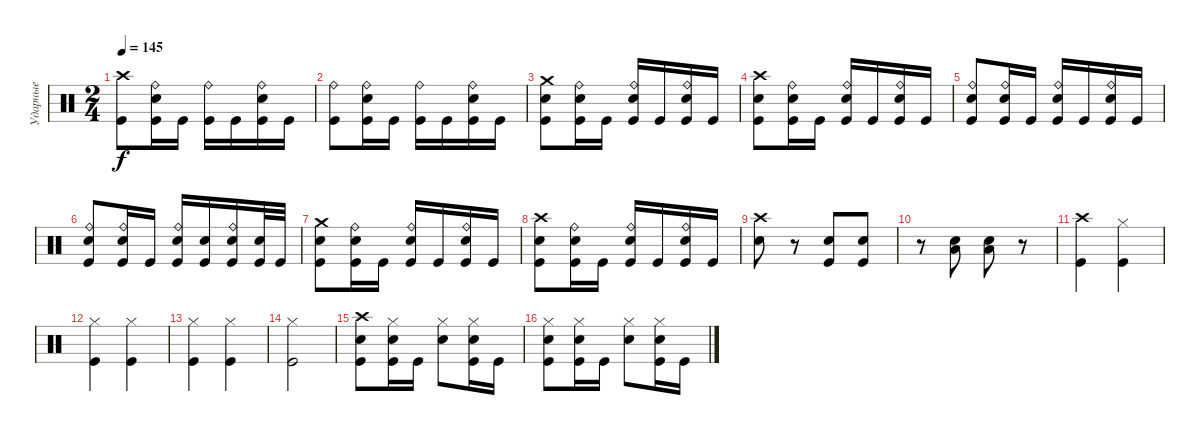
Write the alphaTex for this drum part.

\track ("Ударные" "Ударные") {instrument percussion}
\staff {score}
\articulation defaults
\ts (2 4)
\tempo 145
\clef neutral
\ks c
("Crash high (hit)" "Kick (hit)").8{dy f} ("Ride (bell)" "Electric Snare (hit)" "Kick (hit)").16 "Kick (hit)".16 ("Ride (bell)" "Kick (hit)").16 "Kick (hit)".16 ("Ride (bell)" "Electric Snare (hit)" "Kick (hit)").16 "Kick (hit)".16 |
("Ride (bell)" "Kick (hit)").8 ("Ride (bell)" "Electric Snare (hit)" "Kick (hit)").16 "Kick (hit)".16 ("Ride (bell)" "Kick (hit)").16 "Kick (hit)".16 ("Ride (bell)" "Electric Snare (hit)" "Kick (hit)").16 "Kick (hit)".16 |
("Crash medium (hit)" "Electric Snare (hit)" "Kick (hit)").8 ("Ride (bell)" "Electric Snare (hit)" "Kick (hit)").16 "Kick (hit)".16 ("Ride (bell)" "Electric Snare (hit)" "Kick (hit)").16 "Kick (hit)".16 ("Ride (bell)" "Electric Snare (hit)" "Kick (hit)").16 "Kick (hit)".16 |
("Crash high (hit)" "Electric Snare (hit)" "Kick (hit)").8 ("Ride (bell)" "Electric Snare (hit)" "Kick (hit)").16 "Kick (hit)".16 ("Ride (bell)" "Electric Snare (hit)" "Kick (hit)").16 "Kick (hit)".16 ("Ride (bell)" "Electric Snare (hit)" "Kick (hit)").16 "Kick (hit)".16 |
("Ride (bell)" "Electric Snare (hit)" "Kick (hit)").8 ("Ride (bell)" "Electric Snare (hit)" "Kick (hit)").16 "Kick (hit)".16 ("Ride (bell)" "Electric Snare (hit)" "Kick (hit)").16 "Kick (hit)".16 ("Ride (bell)" "Electric Snare (hit)" "Kick (hit)").16 "Kick (hit)".16 |
("Ride (bell)" "Electric Snare (hit)" "Kick (hit)").8 ("Ride (bell)" "Electric Snare (hit)" "Kick (hit)").16 "Kick (hit)".16 ("Ride (bell)" "Electric Snare (hit)" "Kick (hit)").16 ("Electric Snare (hit)" "Kick (hit)").16 ("Ride (bell)" "Electric Snare (hit)" "Kick (hit)").16 ("Electric Snare (hit)" "Kick (hit)").32 "Kick (hit)".32 |
("Crash medium (hit)" "Electric Snare (hit)" "Kick (hit)").8 ("Ride (bell)" "Electric Snare (hit)" "Kick (hit)").16 "Kick (hit)".16 ("Ride (bell)" "Electric Snare (hit)" "Kick (hit)").16 "Kick (hit)".16 ("Ride (bell)" "Electric Snare (hit)" "Kick (hit)").16 "Kick (hit)".16 |
("Crash high (hit)" "Electric Snare (hit)" "Kick (hit)").8 ("Ride (bell)" "Electric Snare (hit)" "Kick (hit)").16 "Kick (hit)".16 ("Ride (bell)" "Electric Snare (hit)" "Kick (hit)").16 "Kick (hit)".16 ("Ride (bell)" "Electric Snare (hit)" "Kick (hit)").16 "Kick (hit)".16 |
("Crash high (hit)" "Electric Snare (hit)").8 r.8 ("Kick (hit)" "Electric Snare (hit)").8 ("Kick (hit)" "Electric Snare (hit)").8 |
r.8 ("Low Tom (hit)" "Electric Snare (hit)").8 ("Low Tom (hit)" "Electric Snare (hit)").8 r.8 |
("Crash high (hit)" "Kick (hit)").4 ("Hi-Hat (closed)" "Kick (hit)").4 |
("Hi-Hat (closed)" "Kick (hit)").4 ("Hi-Hat (closed)" "Kick (hit)").4 |
("Hi-Hat (closed)" "Kick (hit)").4 ("Hi-Hat (closed)" "Kick (hit)").4 |
("Hi-Hat (closed)" "Kick (hit)").2 |
("Crash high (hit)" "Electric Snare (hit)" "Kick (hit)").8 ("Hi-Hat (closed)" "Electric Snare (hit)" "Kick (hit)").16 "Kick (hit)".16 ("Hi-Hat (closed)" "Electric Snare (hit)").8 ("Hi-Hat (closed)" "Electric Snare (hit)" "Kick (hit)").16 "Kick (hit)".16 |
("Hi-Hat (closed)" "Electric Snare (hit)" "Kick (hit)").8 ("Hi-Hat (closed)" "Electric Snare (hit)" "Kick (hit)").16 "Kick (hit)".16 ("Hi-Hat (closed)" "Electric Snare (hit)").8 ("Hi-Hat (closed)" "Electric Snare (hit)" "Kick (hit)").16 "Kick (hit)".16
